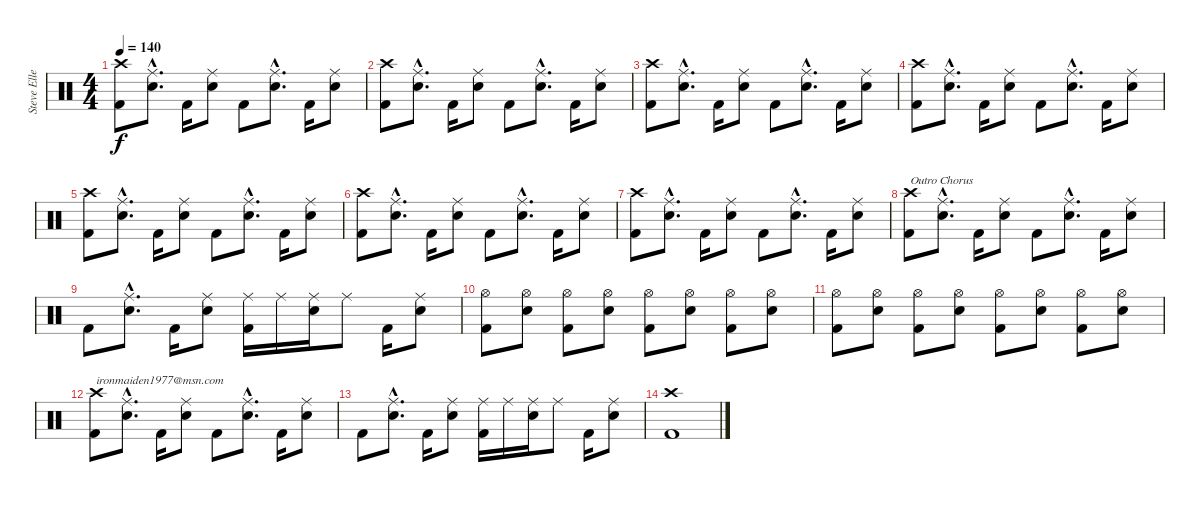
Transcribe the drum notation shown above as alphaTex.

\track ("Steve Ellett" "Steve Elle") {instrument percussion}
\staff {score}
\articulation defaults
\ts (4 4)
\tempo 140
\clef neutral
\ks c
("Crash high (hit)" "Kick (hit) 2").8{dy f} ("Ride (middle)"{hac} "Snare (hit) 2"{hac}).8{d} "Kick (hit) 2".16 ("Ride (middle)" "Snare (hit) 2").8 "Kick (hit) 2".8 ("Ride (middle)"{hac} "Snare (hit) 2"{hac}).8{d} "Kick (hit) 2".16 ("Ride (middle)" "Snare (hit) 2").8 |
("Crash high (hit)" "Kick (hit) 2").8 ("Ride (middle)"{hac} "Snare (hit) 2"{hac}).8{d} "Kick (hit) 2".16 ("Ride (middle)" "Snare (hit) 2").8 "Kick (hit) 2".8 ("Ride (middle)"{hac} "Snare (hit) 2"{hac}).8{d} "Kick (hit) 2".16 ("Ride (middle)" "Snare (hit) 2").8 |
("Crash high (hit)" "Kick (hit) 2").8 ("Ride (middle)"{hac} "Snare (hit) 2"{hac}).8{d} "Kick (hit) 2".16 ("Ride (middle)" "Snare (hit) 2").8 "Kick (hit) 2".8 ("Ride (middle)"{hac} "Snare (hit) 2"{hac}).8{d} "Kick (hit) 2".16 ("Ride (middle)" "Snare (hit) 2").8 |
("Crash high (hit)" "Kick (hit) 2").8 ("Ride (middle)"{hac} "Snare (hit) 2"{hac}).8{d} "Kick (hit) 2".16 ("Ride (middle)" "Snare (hit) 2").8 "Kick (hit) 2".8 ("Ride (middle)"{hac} "Snare (hit) 2"{hac}).8{d} "Kick (hit) 2".16 ("Ride (middle)" "Snare (hit) 2").8 |
("Crash high (hit)" "Kick (hit) 2").8 ("Ride (middle)"{hac} "Snare (hit) 2"{hac}).8{d} "Kick (hit) 2".16 ("Ride (middle)" "Snare (hit) 2").8 "Kick (hit) 2".8 ("Ride (middle)"{hac} "Snare (hit) 2"{hac}).8{d} "Kick (hit) 2".16 ("Ride (middle)" "Snare (hit) 2").8 |
("Crash high (hit)" "Kick (hit) 2").8 ("Ride (middle)"{hac} "Snare (hit) 2"{hac}).8{d} "Kick (hit) 2".16 ("Ride (middle)" "Snare (hit) 2").8 "Kick (hit) 2".8 ("Ride (middle)"{hac} "Snare (hit) 2"{hac}).8{d} "Kick (hit) 2".16 ("Ride (middle)" "Snare (hit) 2").8 |
("Crash high (hit)" "Kick (hit) 2").8 ("Ride (middle)"{hac} "Snare (hit) 2"{hac}).8{d} "Kick (hit) 2".16 ("Ride (middle)" "Snare (hit) 2").8 "Kick (hit) 2".8 ("Ride (middle)"{hac} "Snare (hit) 2"{hac}).8{d} "Kick (hit) 2".16 ("Ride (middle)" "Snare (hit) 2").8 |
("Crash high (hit)" "Kick (hit) 2").8{txt "Outro Chorus"} ("Ride (middle)"{hac} "Snare (hit) 2"{hac}).8{d} "Kick (hit) 2".16 ("Ride (middle)" "Snare (hit) 2").8 "Kick (hit) 2".8 ("Ride (middle)"{hac} "Snare (hit) 2"{hac}).8{d} "Kick (hit) 2".16 ("Ride (middle)" "Snare (hit) 2").8 |
"Kick (hit) 2".8 ("Ride (middle)"{hac} "Snare (hit) 2"{hac}).8{d} "Kick (hit) 2".16 ("Ride (middle)" "Snare (hit) 2").8 ("Ride (middle)" "Kick (hit) 2").16 "Ride (middle)".16 ("Ride (middle)" "Snare (hit) 2").16 "Ride (middle)".8 "Kick (hit) 2".16 ("Ride (middle)" "Snare (hit) 2").8 |
("Hi-Hat (open)" "Kick (hit) 2").8 ("Hi-Hat (open)" "Snare (hit) 2").8 ("Hi-Hat (open)" "Kick (hit) 2").8 ("Hi-Hat (open)" "Snare (hit) 2").8 ("Hi-Hat (open)" "Kick (hit) 2").8 ("Hi-Hat (open)" "Snare (hit) 2").8 ("Hi-Hat (open)" "Kick (hit) 2").8 ("Hi-Hat (open)" "Snare (hit) 2").8 |
("Hi-Hat (open)" "Kick (hit) 2").8 ("Hi-Hat (open)" "Snare (hit) 2").8 ("Hi-Hat (open)" "Kick (hit) 2").8 ("Hi-Hat (open)" "Snare (hit) 2").8 ("Hi-Hat (open)" "Kick (hit) 2").8 ("Hi-Hat (open)" "Snare (hit) 2").8 ("Hi-Hat (open)" "Kick (hit) 2").8 ("Hi-Hat (open)" "Snare (hit) 2").8 |
("Crash high (hit)" "Kick (hit) 2").8{txt "ironmaiden1977@msn.com"} ("Ride (middle)"{hac} "Snare (hit) 2"{hac}).8{d} "Kick (hit) 2".16 ("Ride (middle)" "Snare (hit) 2").8 "Kick (hit) 2".8 ("Ride (middle)"{hac} "Snare (hit) 2"{hac}).8{d} "Kick (hit) 2".16 ("Ride (middle)" "Snare (hit) 2").8 |
"Kick (hit) 2".8 ("Ride (middle)"{hac} "Snare (hit) 2"{hac}).8{d} "Kick (hit) 2".16 ("Ride (middle)" "Snare (hit) 2").8 ("Ride (middle)" "Kick (hit) 2").16 "Ride (middle)".16 ("Ride (middle)" "Snare (hit) 2").16 "Ride (middle)".8 "Kick (hit) 2".16 ("Ride (middle)" "Snare (hit) 2").8 |
("Crash high (hit)" "Kick (hit) 2").1
